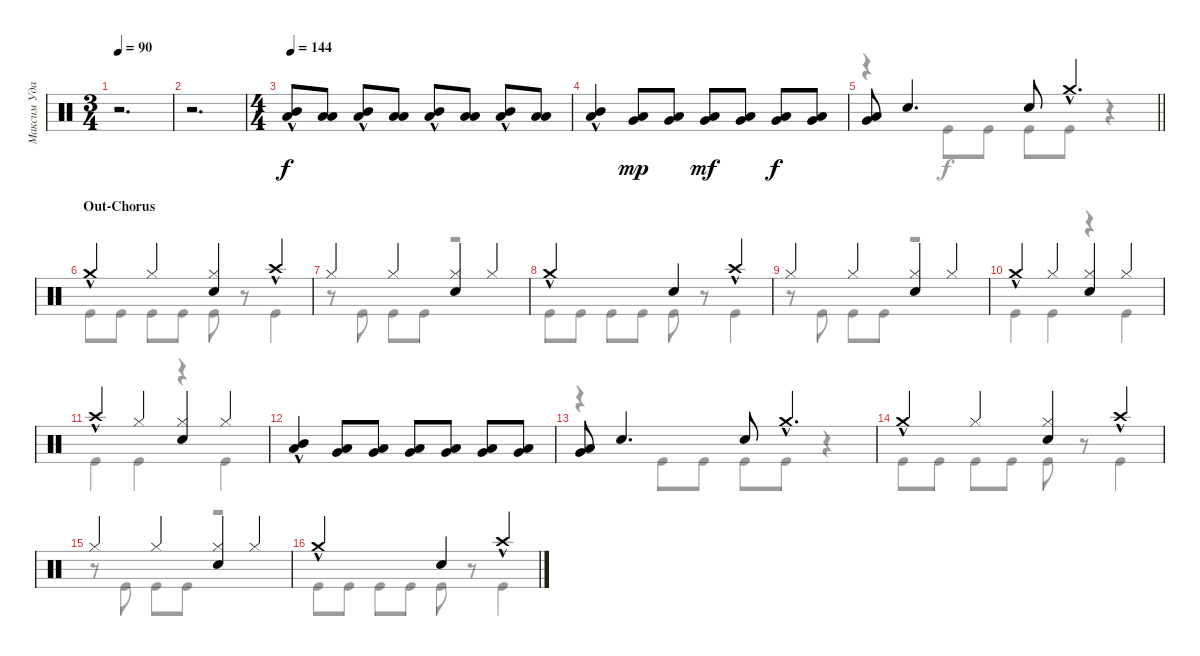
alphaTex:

\track ("Максим Удалов" "Максим Уда") {instrument percussion}
\staff {score}
\articulation defaults
\voice
\ts (3 4)
\tempo 90
\clef neutral
\ks c
r.2{d dy f} |
r.2{d} |
\ts (4 4)
\tempo 144
("Low Tom (hit)"{hac} "Mid Tom (hit)"{hac}).8 ("Low Tom (hit)" "Low Floor Tom (hit)").8 ("Low Tom (hit)"{hac} "Mid Tom (hit)"{hac}).8 ("Low Tom (hit)" "Low Floor Tom (hit)").8 ("Low Tom (hit)"{hac} "Mid Tom (hit)"{hac}).8 ("Low Tom (hit)" "Low Floor Tom (hit)").8 ("Low Tom (hit)"{hac} "Mid Tom (hit)"{hac}).8 ("Low Tom (hit)" "Low Floor Tom (hit)").8 |
("Low Tom (hit)"{hac} "Mid Tom (hit)"{hac}).4 ("Low Tom (hit)" "Very Low Tom (hit)").8{dy mp} ("Low Tom (hit)" "Very Low Tom (hit)").8 ("Low Tom (hit)" "Very Low Tom (hit)").8{dy mf} ("Low Tom (hit)" "Very Low Tom (hit)").8 ("Low Tom (hit)" "Very Low Tom (hit)").8{dy f} ("Low Tom (hit)" "Very Low Tom (hit)").8 |
\barLineRight lightlight
("Low Tom (hit)" "Very Low Tom (hit)").8 "Snare (hit) 2".4{d} "Snare (hit) 2".8 "Crash medium (hit)"{hac}.4{d} |
\section ("" "Out-Chorus")
"Crash medium (hit)"{hac}.4 "Hi-Hat (closed)".4 ("Snare (hit) 2" "Hi-Hat (closed)").4 "Crash high (hit)"{hac}.4 |
"Hi-Hat (closed)".4 "Hi-Hat (closed)".4 ("Hi-Hat (closed)" "Snare (hit) 2").4 "Hi-Hat (closed)".4 |
"Crash medium (hit)"{hac}.2 "Snare (hit) 2".4 "Crash high (hit)"{hac}.4 |
"Hi-Hat (closed)".4 "Hi-Hat (closed)".4 ("Hi-Hat (closed)" "Snare (hit) 2").4 "Hi-Hat (closed)".4 |
"Crash medium (hit)"{hac}.4 "Hi-Hat (closed)".4 ("Hi-Hat (closed)" "Snare (hit) 2").4 "Hi-Hat (closed)".4 |
"Crash high (hit)"{hac}.4 "Hi-Hat (closed)".4 ("Hi-Hat (closed)" "Snare (hit) 2").4 "Hi-Hat (closed)".4 |
("Low Tom (hit)"{hac} "Mid Tom (hit)"{hac}).4 ("Low Tom (hit)" "Very Low Tom (hit)").8 ("Low Tom (hit)" "Very Low Tom (hit)").8 ("Low Tom (hit)" "Very Low Tom (hit)").8 ("Low Tom (hit)" "Very Low Tom (hit)").8 ("Low Tom (hit)" "Very Low Tom (hit)").8 ("Low Tom (hit)" "Very Low Tom (hit)").8 |
("Low Tom (hit)" "Very Low Tom (hit)").8 "Snare (hit) 2".4{d} "Snare (hit) 2".8 "Crash medium (hit)"{hac}.4{d} |
"Crash medium (hit)"{hac}.4 "Hi-Hat (closed)".4 ("Snare (hit) 2" "Hi-Hat (closed)").4 "Crash high (hit)"{hac}.4 |
"Hi-Hat (closed)".4 "Hi-Hat (closed)".4 ("Hi-Hat (closed)" "Snare (hit) 2").4 "Hi-Hat (closed)".4 |
"Crash medium (hit)"{hac}.2 "Snare (hit) 2".4 "Crash high (hit)"{hac}.4
\voice
\clef neutral
\ottava regular
\simile none
\ks c
|
|
|
|
\barLineRight lightlight
r.4 "Kick (hit)".8 "Kick (hit)".8 "Kick (hit)".8 "Kick (hit)".8 r.4 |
"Kick (hit)".8 "Kick (hit)".8 "Kick (hit)".8 "Kick (hit)".8 "Kick (hit)".8 r.8 "Kick (hit)".4 |
r.8 "Kick (hit)".8 "Kick (hit)".8 "Kick (hit)".8 r.2 |
"Kick (hit)".8 "Kick (hit)".8 "Kick (hit)".8 "Kick (hit)".8 "Kick (hit)".8 r.8 "Kick (hit)".4 |
r.8 "Kick (hit)".8 "Kick (hit)".8 "Kick (hit)".8 r.2 |
"Kick (hit)".4 "Kick (hit)".4 r.4 "Kick (hit)".4 |
"Kick (hit)".4 "Kick (hit)".4 r.4 "Kick (hit)".4 |
|
r.4 "Kick (hit)".8 "Kick (hit)".8 "Kick (hit)".8 "Kick (hit)".8 r.4 |
"Kick (hit)".8 "Kick (hit)".8 "Kick (hit)".8 "Kick (hit)".8 "Kick (hit)".8 r.8 "Kick (hit)".4 |
r.8 "Kick (hit)".8 "Kick (hit)".8 "Kick (hit)".8 r.2 |
"Kick (hit)".8 "Kick (hit)".8 "Kick (hit)".8 "Kick (hit)".8 "Kick (hit)".8 r.8 "Kick (hit)".4
